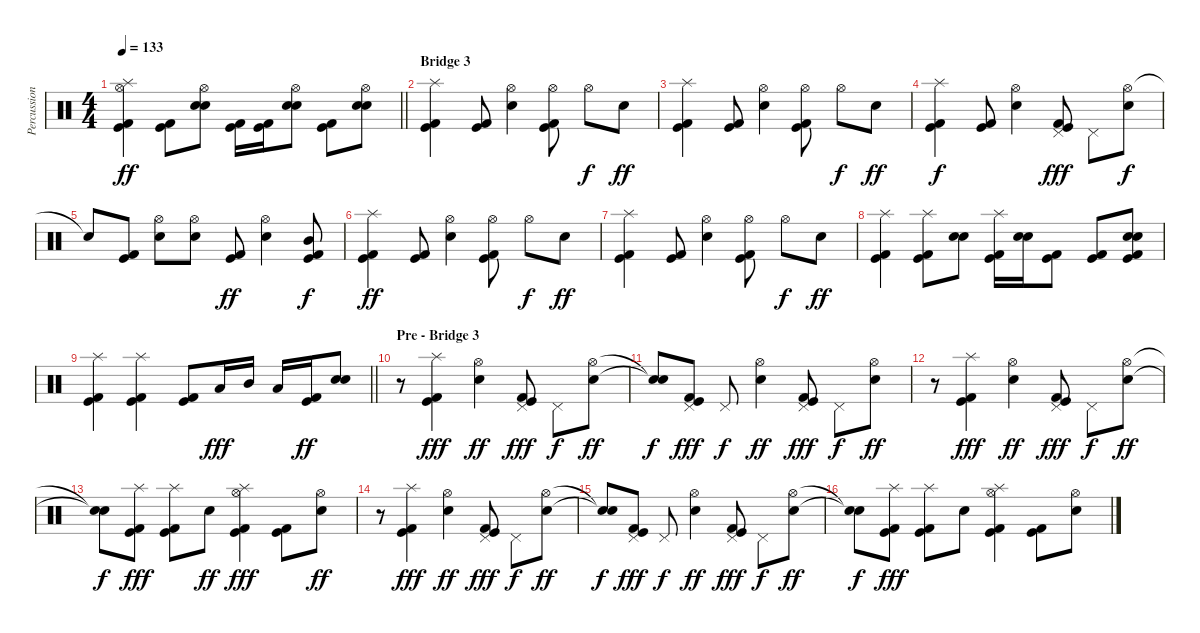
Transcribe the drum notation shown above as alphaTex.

\track ("Percussion" "Percussion") {instrument percussion}
\staff {score}
\articulation defaults
\ts (4 4)
\tempo 133
\clef neutral
\barLineRight lightlight
\ks c
("Splash (hit)" "Hi-Hat (open)" "Kick (hit)" "Kick (hit) 2").4{dy ff} ("Kick (hit)" "Kick (hit) 2").8 ("Hi-Hat (open)" "Snare (hit) 2" "Electric Snare (hit)").8 ("Kick (hit)" "Kick (hit) 2").16 ("Kick (hit)" "Kick (hit) 2").16 ("Hi-Hat (open)" "Snare (hit) 2" "Electric Snare (hit)").8 ("Kick (hit)" "Kick (hit) 2").8 ("Hi-Hat (open)" "Snare (hit) 2" "Electric Snare (hit)").8 |
\section ("" "Bridge 3")
("Splash (hit)" "Kick (hit)" "Kick (hit) 2").4 ("Kick (hit)" "Kick (hit) 2").8 ("Hi-Hat (open)" "Snare (hit) 2").4 ("Hi-Hat (open)" "Kick (hit)" "Kick (hit) 2").8 "Hi-Hat (open)".8{dy f} "Snare (hit) 2".8{dy ff} |
("Splash (hit)" "Kick (hit)" "Kick (hit) 2").4 ("Kick (hit)" "Kick (hit) 2").8 ("Hi-Hat (open)" "Snare (hit) 2").4 ("Hi-Hat (open)" "Kick (hit)" "Kick (hit) 2").8 "Hi-Hat (open)".8{dy f} "Snare (hit) 2".8{dy ff} |
("Splash (hit)" "Kick (hit)" "Kick (hit) 2").4{dy f} ("Kick (hit)" "Kick (hit) 2").8 ("Hi-Hat (open)" "Snare (hit) 2").4 ("Pedal Hi-Hat (hit)" "Kick (hit)" "Kick (hit) 2").8{dy fff} "Pedal Hi-Hat (hit)".8 ("Hi-Hat (open)" "Snare (hit) 2").8{dy f} |
"Snare (hit)"{t}.8 ("Kick (hit)" "Kick (hit) 2").8 ("Hi-Hat (open)" "Snare (hit) 2").8 ("Hi-Hat (open)" "Snare (hit) 2").8 ("Kick (hit)" "Kick (hit) 2").8{dy ff} ("Hi-Hat (open)" "Snare (hit) 2").4 ("Mid Tom (hit)" "Kick (hit)" "Kick (hit) 2").8{dy f} |
("Splash (hit)" "Kick (hit)" "Kick (hit) 2").4{dy ff} ("Kick (hit)" "Kick (hit) 2").8 ("Hi-Hat (open)" "Snare (hit) 2").4 ("Hi-Hat (open)" "Kick (hit)" "Kick (hit) 2").8 "Hi-Hat (open)".8{dy f} "Snare (hit) 2".8{dy ff} |
("Splash (hit)" "Kick (hit)" "Kick (hit) 2").4 ("Kick (hit)" "Kick (hit) 2").8 ("Hi-Hat (open)" "Snare (hit) 2").4 ("Hi-Hat (open)" "Kick (hit)" "Kick (hit) 2").8 "Hi-Hat (open)".8{dy f} "Snare (hit) 2".8{dy ff} |
("Splash (hit)" "Kick (hit)" "Kick (hit) 2").4 ("Splash (hit)" "Kick (hit)" "Kick (hit) 2").8 ("Electric Snare (hit)" "Snare (hit) 2").8 ("Splash (hit)" "Kick (hit)" "Kick (hit) 2").16 ("Electric Snare (hit)" "Snare (hit) 2").16 ("Kick (hit)" "Kick (hit) 2").8 ("Kick (hit)" "Kick (hit) 2").8 ("Electric Snare (hit)" "Snare (hit) 2" "Kick (hit)" "Kick (hit) 2").8 |
\barLineRight lightlight
("Splash (hit)" "Kick (hit)" "Kick (hit) 2").4 ("Splash (hit)" "Kick (hit)" "Kick (hit) 2").4 ("Kick (hit)" "Kick (hit) 2").8 "Low Tom (hit)".16{dy fff} "Mid Tom (hit)".16 "Low Tom (hit)".16 ("Kick (hit)" "Kick (hit) 2").16{dy ff} ("Electric Snare (hit)" "Snare (hit) 2").8{bd 60} |
\section ("" "Pre - Bridge 3")
r.8 ("Splash (hit)" "Kick (hit)" "Kick (hit) 2").4{dy fff} ("Hi-Hat (open)" "Snare (hit) 2").4{dy ff} ("Pedal Hi-Hat (hit)" "Kick (hit)" "Kick (hit) 2").8{dy fff} "Pedal Hi-Hat (hit)".8{dy f} ("Hi-Hat (open)" "Snare (hit) 2").8{dy ff} |
("Snare (hit)"{t} "Snare (hit)"{t}).8{dy f} ("Pedal Hi-Hat (hit)" "Kick (hit)" "Kick (hit) 2").8{dy fff} "Pedal Hi-Hat (hit)".8{dy f} ("Hi-Hat (open)" "Snare (hit) 2").4{dy ff} ("Pedal Hi-Hat (hit)" "Kick (hit)" "Kick (hit) 2").8{dy fff} "Pedal Hi-Hat (hit)".8{dy f} ("Hi-Hat (open)" "Snare (hit) 2").8{dy ff} |
r.8 ("Splash (hit)" "Kick (hit)" "Kick (hit) 2").4{dy fff} ("Hi-Hat (open)" "Snare (hit) 2").4{dy ff} ("Pedal Hi-Hat (hit)" "Kick (hit)" "Kick (hit) 2").8{dy fff} "Pedal Hi-Hat (hit)".8{dy f} ("Hi-Hat (open)" "Snare (hit) 2").8{dy ff} |
("Snare (hit)"{t} "Snare (hit)"{t}).8{dy f} ("Splash (hit)" "Kick (hit)" "Kick (hit) 2").8{dy fff} ("Splash (hit)" "Kick (hit)" "Kick (hit) 2").8 "Snare (hit) 2".8{dy ff} ("Splash (hit)" "Hi-Hat (open)" "Kick (hit)" "Kick (hit) 2").4{dy fff} ("Kick (hit)" "Kick (hit) 2").8 ("Hi-Hat (open)" "Snare (hit) 2").8{dy ff} |
r.8 ("Splash (hit)" "Kick (hit)" "Kick (hit) 2").4{dy fff} ("Hi-Hat (open)" "Snare (hit) 2").4{dy ff} ("Pedal Hi-Hat (hit)" "Kick (hit)" "Kick (hit) 2").8{dy fff} "Pedal Hi-Hat (hit)".8{dy f} ("Hi-Hat (open)" "Snare (hit) 2").8{dy ff} |
("Snare (hit)"{t} "Snare (hit)"{t}).8{dy f} ("Pedal Hi-Hat (hit)" "Kick (hit)" "Kick (hit) 2").8{dy fff} "Pedal Hi-Hat (hit)".8{dy f} ("Hi-Hat (open)" "Snare (hit) 2").4{dy ff} ("Pedal Hi-Hat (hit)" "Kick (hit)" "Kick (hit) 2").8{dy fff} "Pedal Hi-Hat (hit)".8{dy f} ("Hi-Hat (open)" "Snare (hit) 2").8{dy ff} |
("Snare (hit)"{t} "Snare (hit)"{t}).8{dy f} ("Splash (hit)" "Kick (hit)" "Kick (hit) 2").8{dy fff} ("Splash (hit)" "Kick (hit)" "Kick (hit) 2").8 "Snare (hit) 2".8 ("Splash (hit)" "Hi-Hat (open)" "Kick (hit)" "Kick (hit) 2").4 ("Kick (hit)" "Kick (hit) 2").8 ("Hi-Hat (open)" "Snare (hit) 2").8
